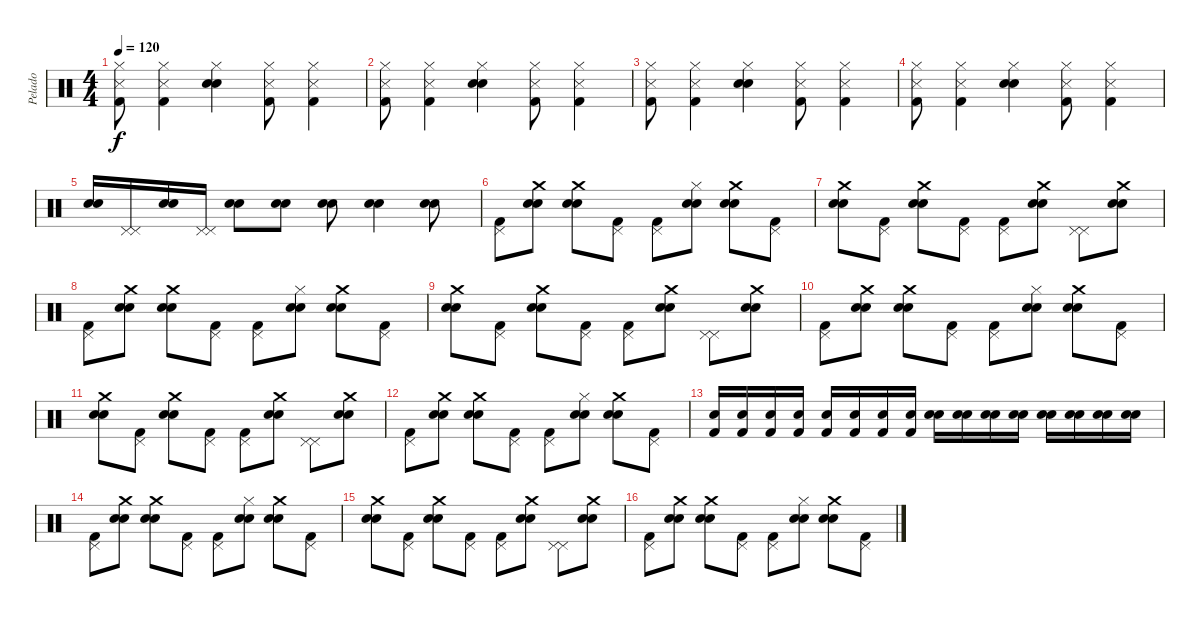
\track ("Pelado" "Pelado") {instrument percussion}
\staff {score}
\articulation defaults
\ts (4 4)
\tempo 120
\clef neutral
\ks c
("Hi-Hat (closed)" "Snare (side stick) 3" "Kick (hit) 2").8{dy f} ("Hi-Hat (closed)" "Snare (side stick) 3" "Kick (hit) 2").4 ("Hi-Hat (closed)" "Hand Clap (hit)" "Hand Clap (hit)").4 ("Hi-Hat (closed)" "Snare (side stick) 3" "Kick (hit) 2").8 ("Hi-Hat (closed)" "Snare (side stick) 3" "Kick (hit) 2").4 |
("Hi-Hat (closed)" "Snare (side stick) 3" "Kick (hit) 2").8 ("Hi-Hat (closed)" "Snare (side stick) 3" "Kick (hit) 2").4 ("Hi-Hat (closed)" "Hand Clap (hit)" "Hand Clap (hit)").4 ("Hi-Hat (closed)" "Snare (side stick) 3" "Kick (hit) 2").8 ("Hi-Hat (closed)" "Snare (side stick) 3" "Kick (hit) 2").4 |
("Hi-Hat (closed)" "Snare (side stick) 3" "Kick (hit) 2").8 ("Hi-Hat (closed)" "Snare (side stick) 3" "Kick (hit) 2").4 ("Hi-Hat (closed)" "Hand Clap (hit)" "Hand Clap (hit)").4 ("Hi-Hat (closed)" "Snare (side stick) 3" "Kick (hit) 2").8 ("Hi-Hat (closed)" "Snare (side stick) 3" "Kick (hit) 2").4 |
("Hi-Hat (closed)" "Snare (side stick) 3" "Kick (hit) 2").8 ("Hi-Hat (closed)" "Snare (side stick) 3" "Kick (hit) 2").4 ("Hi-Hat (closed)" "Hand Clap (hit)" "Hand Clap (hit)").4 ("Hi-Hat (closed)" "Snare (side stick) 3" "Kick (hit) 2").8 ("Hi-Hat (closed)" "Snare (side stick) 3" "Kick (hit) 2").4 |
("Electric Snare (hit)" "Electric Snare (hit)").16 ("Pedal Hi-Hat (hit)" "Pedal Hi-Hat (hit)").16 ("Electric Snare (hit)" "Electric Snare (hit)").16 ("Pedal Hi-Hat (hit)" "Pedal Hi-Hat (hit)").16 ("Electric Snare (hit)" "Electric Snare (hit)").8 ("Electric Snare (hit)" "Electric Snare (hit)").8 ("Electric Snare (hit)" "Electric Snare (hit)").8 ("Electric Snare (hit)" "Electric Snare (hit)").4 ("Electric Snare (hit)" "Electric Snare (hit)").8 |
("Pedal Hi-Hat (hit)" "Kick (hit) 2").8 ("Crash medium (hit)" "Snare (hit) 2" "Snare (hit) 2").8 ("Crash medium (hit)" "Snare (hit) 2" "Snare (hit) 2").8 ("Pedal Hi-Hat (hit)" "Kick (hit) 2").8 ("Pedal Hi-Hat (hit)" "Kick (hit) 2").8 ("Hi-Hat (closed)" "Snare (hit) 2" "Snare (hit) 2").8 ("Crash medium (hit)" "Snare (hit) 2" "Snare (hit) 2").8 ("Pedal Hi-Hat (hit)" "Kick (hit) 2").8 |
("Crash medium (hit)" "Snare (hit) 2" "Snare (hit) 2").8 ("Pedal Hi-Hat (hit)" "Kick (hit) 2").8 ("Crash medium (hit)" "Snare (hit) 2" "Snare (hit) 2").8 ("Pedal Hi-Hat (hit)" "Kick (hit) 2").8 ("Pedal Hi-Hat (hit)" "Kick (hit) 2").8 ("Crash medium (hit)" "Snare (hit) 2" "Snare (hit) 2").8 ("Pedal Hi-Hat (hit)" "Pedal Hi-Hat (hit)").8 ("Crash medium (hit)" "Snare (hit) 2" "Snare (hit) 2").8 |
("Pedal Hi-Hat (hit)" "Kick (hit) 2").8 ("Crash medium (hit)" "Snare (hit) 2" "Snare (hit) 2").8 ("Crash medium (hit)" "Snare (hit) 2" "Snare (hit) 2").8 ("Pedal Hi-Hat (hit)" "Kick (hit) 2").8 ("Pedal Hi-Hat (hit)" "Kick (hit) 2").8 ("Hi-Hat (closed)" "Snare (hit) 2" "Snare (hit) 2").8 ("Crash medium (hit)" "Snare (hit) 2" "Snare (hit) 2").8 ("Pedal Hi-Hat (hit)" "Kick (hit) 2").8 |
("Crash medium (hit)" "Snare (hit) 2" "Snare (hit) 2").8 ("Pedal Hi-Hat (hit)" "Kick (hit) 2").8 ("Crash medium (hit)" "Snare (hit) 2" "Snare (hit) 2").8 ("Pedal Hi-Hat (hit)" "Kick (hit) 2").8 ("Pedal Hi-Hat (hit)" "Kick (hit) 2").8 ("Crash medium (hit)" "Snare (hit) 2" "Snare (hit) 2").8 ("Pedal Hi-Hat (hit)" "Pedal Hi-Hat (hit)").8 ("Crash medium (hit)" "Snare (hit) 2" "Snare (hit) 2").8 |
("Pedal Hi-Hat (hit)" "Kick (hit) 2").8 ("Crash medium (hit)" "Snare (hit) 2" "Snare (hit) 2").8 ("Crash medium (hit)" "Snare (hit) 2" "Snare (hit) 2").8 ("Pedal Hi-Hat (hit)" "Kick (hit) 2").8 ("Pedal Hi-Hat (hit)" "Kick (hit) 2").8 ("Hi-Hat (closed)" "Snare (hit) 2" "Snare (hit) 2").8 ("Crash medium (hit)" "Snare (hit) 2" "Snare (hit) 2").8 ("Pedal Hi-Hat (hit)" "Kick (hit) 2").8 |
("Crash medium (hit)" "Snare (hit) 2" "Snare (hit) 2").8 ("Pedal Hi-Hat (hit)" "Kick (hit) 2").8 ("Crash medium (hit)" "Snare (hit) 2" "Snare (hit) 2").8 ("Pedal Hi-Hat (hit)" "Kick (hit) 2").8 ("Pedal Hi-Hat (hit)" "Kick (hit) 2").8 ("Crash medium (hit)" "Snare (hit) 2" "Snare (hit) 2").8 ("Pedal Hi-Hat (hit)" "Pedal Hi-Hat (hit)").8 ("Crash medium (hit)" "Snare (hit) 2" "Snare (hit) 2").8 |
("Pedal Hi-Hat (hit)" "Kick (hit) 2").8 ("Crash medium (hit)" "Snare (hit) 2" "Snare (hit) 2").8 ("Crash medium (hit)" "Snare (hit) 2" "Snare (hit) 2").8 ("Pedal Hi-Hat (hit)" "Kick (hit) 2").8 ("Pedal Hi-Hat (hit)" "Kick (hit) 2").8 ("Hi-Hat (closed)" "Snare (hit) 2" "Snare (hit) 2").8 ("Crash medium (hit)" "Snare (hit) 2" "Snare (hit) 2").8 ("Pedal Hi-Hat (hit)" "Kick (hit) 2").8 |
("Snare (hit) 2" "Kick (hit) 2").16 ("Snare (hit) 2" "Kick (hit) 2").16 ("Snare (hit) 2" "Kick (hit) 2").16 ("Snare (hit) 2" "Kick (hit) 2").16 ("Snare (hit) 2" "Kick (hit) 2").16 ("Snare (hit) 2" "Kick (hit) 2").16 ("Snare (hit) 2" "Kick (hit) 2").16 ("Snare (hit) 2" "Kick (hit) 2").16 ("Electric Snare (hit)" "Electric Snare (hit)").16 ("Electric Snare (hit)" "Electric Snare (hit)").16 ("Electric Snare (hit)" "Electric Snare (hit)").16 ("Electric Snare (hit)" "Electric Snare (hit)").16 ("Electric Snare (hit)" "Electric Snare (hit)").16 ("Electric Snare (hit)" "Electric Snare (hit)").16 ("Electric Snare (hit)" "Electric Snare (hit)").16 ("Electric Snare (hit)" "Electric Snare (hit)").16 |
("Pedal Hi-Hat (hit)" "Kick (hit) 2").8 ("Crash medium (hit)" "Snare (hit) 2" "Snare (hit) 2").8 ("Crash medium (hit)" "Snare (hit) 2" "Snare (hit) 2").8 ("Pedal Hi-Hat (hit)" "Kick (hit) 2").8 ("Pedal Hi-Hat (hit)" "Kick (hit) 2").8 ("Hi-Hat (closed)" "Snare (hit) 2" "Snare (hit) 2").8 ("Crash medium (hit)" "Snare (hit) 2" "Snare (hit) 2").8 ("Pedal Hi-Hat (hit)" "Kick (hit) 2").8 |
("Crash medium (hit)" "Snare (hit) 2" "Snare (hit) 2").8 ("Pedal Hi-Hat (hit)" "Kick (hit) 2").8 ("Crash medium (hit)" "Snare (hit) 2" "Snare (hit) 2").8 ("Pedal Hi-Hat (hit)" "Kick (hit) 2").8 ("Pedal Hi-Hat (hit)" "Kick (hit) 2").8 ("Crash medium (hit)" "Snare (hit) 2" "Snare (hit) 2").8 ("Pedal Hi-Hat (hit)" "Pedal Hi-Hat (hit)").8 ("Crash medium (hit)" "Snare (hit) 2" "Snare (hit) 2").8 |
("Pedal Hi-Hat (hit)" "Kick (hit) 2").8 ("Crash medium (hit)" "Snare (hit) 2" "Snare (hit) 2").8 ("Crash medium (hit)" "Snare (hit) 2" "Snare (hit) 2").8 ("Pedal Hi-Hat (hit)" "Kick (hit) 2").8 ("Pedal Hi-Hat (hit)" "Kick (hit) 2").8 ("Hi-Hat (closed)" "Snare (hit) 2" "Snare (hit) 2").8 ("Crash medium (hit)" "Snare (hit) 2" "Snare (hit) 2").8 ("Pedal Hi-Hat (hit)" "Kick (hit) 2").8
